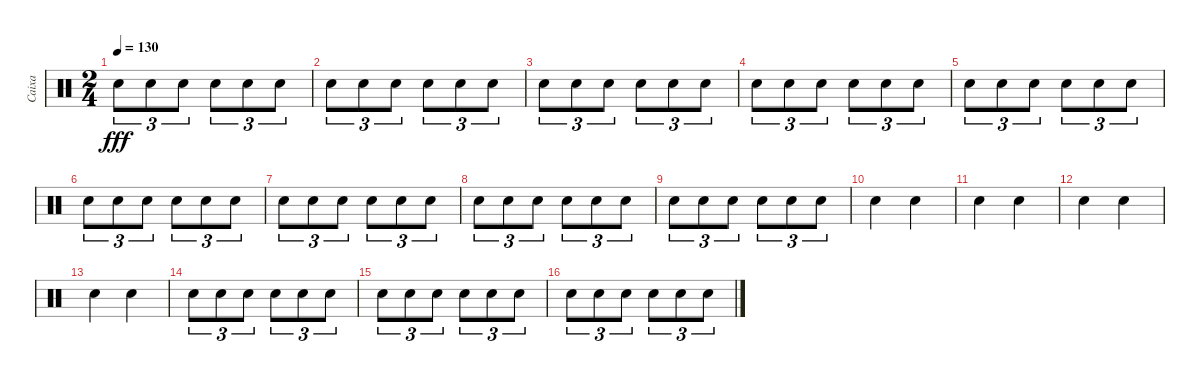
\track ("Caixa" "Caixa") {instrument percussion}
\staff {score}
\articulation defaults
\ts (2 4)
\tempo 130
\clef neutral
\ks c "Electric Snare (hit)".8{tu (3 2) dy fff} "Electric Snare (hit)".8{tu (3 2)} "Electric Snare (hit)".8{tu (3 2)} "Electric Snare (hit)".8{tu (3 2)} "Electric Snare (hit)".8{tu (3 2)} "Electric Snare (hit)".8{tu (3 2)}
|
"Electric Snare (hit)".8{tu (3 2)} "Electric Snare (hit)".8{tu (3 2)} "Electric Snare (hit)".8{tu (3 2)} "Electric Snare (hit)".8{tu (3 2)} "Electric Snare (hit)".8{tu (3 2)} "Electric Snare (hit)".8{tu (3 2)} |
"Electric Snare (hit)".8{tu (3 2)} "Electric Snare (hit)".8{tu (3 2)} "Electric Snare (hit)".8{tu (3 2)} "Electric Snare (hit)".8{tu (3 2)} "Electric Snare (hit)".8{tu (3 2)} "Electric Snare (hit)".8{tu (3 2)} |
"Electric Snare (hit)".8{tu (3 2)} "Electric Snare (hit)".8{tu (3 2)} "Electric Snare (hit)".8{tu (3 2)} "Electric Snare (hit)".8{tu (3 2)} "Electric Snare (hit)".8{tu (3 2)} "Electric Snare (hit)".8{tu (3 2)} |
"Electric Snare (hit)".8{tu (3 2)} "Electric Snare (hit)".8{tu (3 2)} "Electric Snare (hit)".8{tu (3 2)} "Electric Snare (hit)".8{tu (3 2)} "Electric Snare (hit)".8{tu (3 2)} "Electric Snare (hit)".8{tu (3 2)} |
"Electric Snare (hit)".8{tu (3 2)} "Electric Snare (hit)".8{tu (3 2)} "Electric Snare (hit)".8{tu (3 2)} "Electric Snare (hit)".8{tu (3 2)} "Electric Snare (hit)".8{tu (3 2)} "Electric Snare (hit)".8{tu (3 2)} |
"Electric Snare (hit)".8{tu (3 2)} "Electric Snare (hit)".8{tu (3 2)} "Electric Snare (hit)".8{tu (3 2)} "Electric Snare (hit)".8{tu (3 2)} "Electric Snare (hit)".8{tu (3 2)} "Electric Snare (hit)".8{tu (3 2)} |
"Electric Snare (hit)".8{tu (3 2)} "Electric Snare (hit)".8{tu (3 2)} "Electric Snare (hit)".8{tu (3 2)} "Electric Snare (hit)".8{tu (3 2)} "Electric Snare (hit)".8{tu (3 2)} "Electric Snare (hit)".8{tu (3 2)} |
"Electric Snare (hit)".8{tu (3 2)} "Electric Snare (hit)".8{tu (3 2)} "Electric Snare (hit)".8{tu (3 2)} "Electric Snare (hit)".8{tu (3 2)} "Electric Snare (hit)".8{tu (3 2)} "Electric Snare (hit)".8{tu (3 2)} |
"Electric Snare (hit)".4 "Electric Snare (hit)".4 |
"Electric Snare (hit)".4 "Electric Snare (hit)".4 |
"Electric Snare (hit)".4 "Electric Snare (hit)".4 |
"Electric Snare (hit)".4 "Electric Snare (hit)".4 |
"Electric Snare (hit)".8{tu (3 2)} "Electric Snare (hit)".8{tu (3 2)} "Electric Snare (hit)".8{tu (3 2)} "Electric Snare (hit)".8{tu (3 2)} "Electric Snare (hit)".8{tu (3 2)} "Electric Snare (hit)".8{tu (3 2)} |
"Electric Snare (hit)".8{tu (3 2)} "Electric Snare (hit)".8{tu (3 2)} "Electric Snare (hit)".8{tu (3 2)} "Electric Snare (hit)".8{tu (3 2)} "Electric Snare (hit)".8{tu (3 2)} "Electric Snare (hit)".8{tu (3 2)} |
"Electric Snare (hit)".8{tu (3 2)} "Electric Snare (hit)".8{tu (3 2)} "Electric Snare (hit)".8{tu (3 2)} "Electric Snare (hit)".8{tu (3 2)} "Electric Snare (hit)".8{tu (3 2)} "Electric Snare (hit)".8{tu (3 2)}
